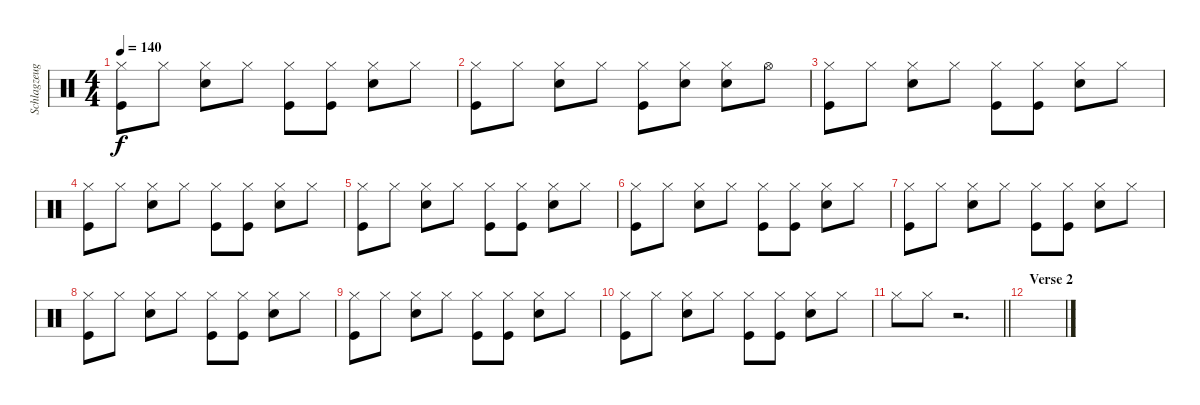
\track ("Schlagzeug 1st" "Schlagzeug") {instrument percussion}
\staff {score}
\articulation defaults
\ts (4 4)
\tempo 140
\clef neutral
\ks c
("Hi-Hat (closed)" "Kick (hit)").8{dy f} "Hi-Hat (closed)".8 ("Hi-Hat (closed)" "Snare (hit) 2").8 "Hi-Hat (closed)".8 ("Hi-Hat (closed)" "Kick (hit)").8 ("Hi-Hat (closed)" "Kick (hit)").8 ("Hi-Hat (closed)" "Snare (hit) 2").8 "Hi-Hat (closed)".8 |
("Hi-Hat (closed)" "Kick (hit)").8 "Hi-Hat (closed)".8 ("Hi-Hat (closed)" "Snare (hit) 2").8 "Hi-Hat (closed)".8 ("Hi-Hat (closed)" "Kick (hit)").8 ("Snare (hit) 2" "Hi-Hat (closed)").8 ("Hi-Hat (closed)" "Snare (hit) 2").8 "Hi-Hat (open)".8 |
("Hi-Hat (closed)" "Kick (hit)").8 "Hi-Hat (closed)".8 ("Hi-Hat (closed)" "Snare (hit) 2").8 "Hi-Hat (closed)".8 ("Hi-Hat (closed)" "Kick (hit)").8 ("Hi-Hat (closed)" "Kick (hit)").8 ("Hi-Hat (closed)" "Snare (hit) 2").8 "Hi-Hat (closed)".8 |
("Hi-Hat (closed)" "Kick (hit)").8 "Hi-Hat (closed)".8 ("Hi-Hat (closed)" "Snare (hit) 2").8 "Hi-Hat (closed)".8 ("Hi-Hat (closed)" "Kick (hit)").8 ("Hi-Hat (closed)" "Kick (hit)").8 ("Hi-Hat (closed)" "Snare (hit) 2").8 "Hi-Hat (closed)".8 |
("Hi-Hat (closed)" "Kick (hit)").8 "Hi-Hat (closed)".8 ("Hi-Hat (closed)" "Snare (hit) 2").8 "Hi-Hat (closed)".8 ("Hi-Hat (closed)" "Kick (hit)").8 ("Hi-Hat (closed)" "Kick (hit)").8 ("Hi-Hat (closed)" "Snare (hit) 2").8 "Hi-Hat (closed)".8 |
("Hi-Hat (closed)" "Kick (hit)").8 "Hi-Hat (closed)".8 ("Hi-Hat (closed)" "Snare (hit) 2").8 "Hi-Hat (closed)".8 ("Hi-Hat (closed)" "Kick (hit)").8 ("Hi-Hat (closed)" "Kick (hit)").8 ("Hi-Hat (closed)" "Snare (hit) 2").8 "Hi-Hat (closed)".8 |
("Hi-Hat (closed)" "Kick (hit)").8 "Hi-Hat (closed)".8 ("Hi-Hat (closed)" "Snare (hit) 2").8 "Hi-Hat (closed)".8 ("Hi-Hat (closed)" "Kick (hit)").8 ("Hi-Hat (closed)" "Kick (hit)").8 ("Hi-Hat (closed)" "Snare (hit) 2").8 "Hi-Hat (closed)".8 |
("Hi-Hat (closed)" "Kick (hit)").8 "Hi-Hat (closed)".8 ("Hi-Hat (closed)" "Snare (hit) 2").8 "Hi-Hat (closed)".8 ("Hi-Hat (closed)" "Kick (hit)").8 ("Hi-Hat (closed)" "Kick (hit)").8 ("Hi-Hat (closed)" "Snare (hit) 2").8 "Hi-Hat (closed)".8 |
("Hi-Hat (closed)" "Kick (hit)").8 "Hi-Hat (closed)".8 ("Hi-Hat (closed)" "Snare (hit) 2").8 "Hi-Hat (closed)".8 ("Hi-Hat (closed)" "Kick (hit)").8 ("Hi-Hat (closed)" "Kick (hit)").8 ("Hi-Hat (closed)" "Snare (hit) 2").8 "Hi-Hat (closed)".8 |
("Hi-Hat (closed)" "Kick (hit)").8 "Hi-Hat (closed)".8 ("Hi-Hat (closed)" "Snare (hit) 2").8 "Hi-Hat (closed)".8 ("Hi-Hat (closed)" "Kick (hit)").8 ("Hi-Hat (closed)" "Kick (hit)").8 ("Hi-Hat (closed)" "Snare (hit) 2").8 "Hi-Hat (closed)".8 |
\barLineRight lightlight "Hi-Hat (closed)".8 "Hi-Hat (closed)".8
r.2{d} |
\section ("" "Verse 2")
